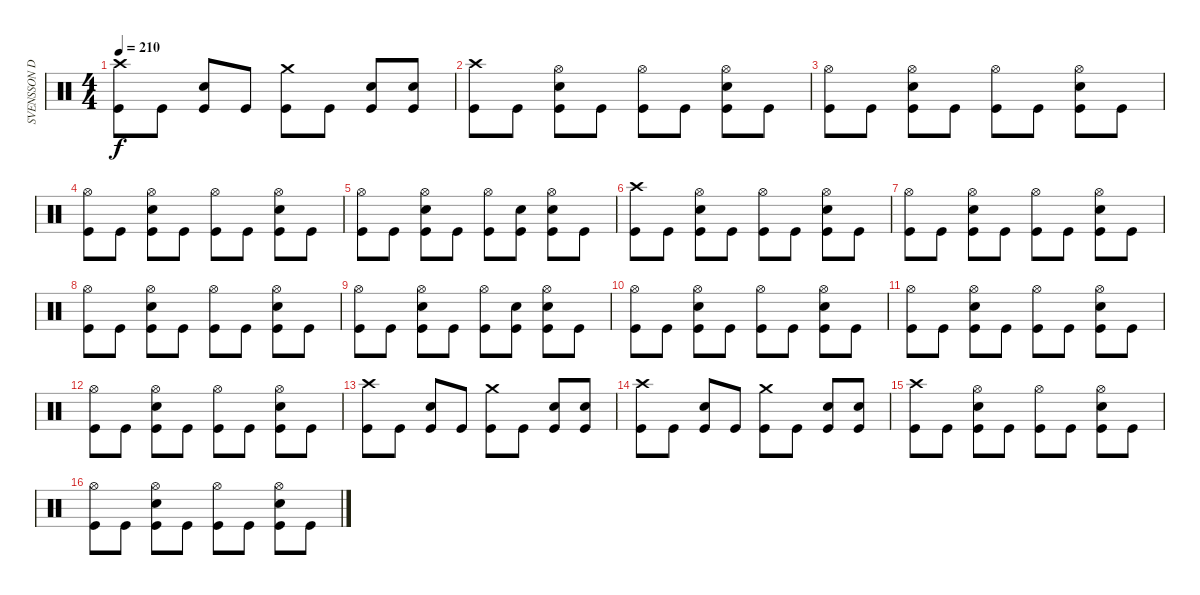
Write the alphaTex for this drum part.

\track ("SVENSSON DRUMS" "SVENSSON D") {instrument percussion}
\staff {score}
\articulation defaults
\ts (4 4)
\tempo 210
\clef neutral
\ks c
("Crash high (hit)" "Kick (hit)").8{dy f} "Kick (hit)".8 ("Electric Snare (hit)" "Kick (hit)").8 "Kick (hit)".8 ("Crash medium (hit)" "Kick (hit)").8 "Kick (hit)".8 ("Electric Snare (hit)" "Kick (hit)").8 ("Electric Snare (hit)" "Kick (hit)").8 |
("Crash high (hit)" "Kick (hit)").8 "Kick (hit)".8 ("Hi-Hat (open)" "Electric Snare (hit)" "Kick (hit)").8 "Kick (hit)".8 ("Hi-Hat (open)" "Kick (hit)").8 "Kick (hit)".8 ("Hi-Hat (open)" "Electric Snare (hit)" "Kick (hit)").8 "Kick (hit)".8 |
("Hi-Hat (open)" "Kick (hit)").8 "Kick (hit)".8 ("Hi-Hat (open)" "Electric Snare (hit)" "Kick (hit)").8 "Kick (hit)".8 ("Hi-Hat (open)" "Kick (hit)").8 "Kick (hit)".8 ("Hi-Hat (open)" "Electric Snare (hit)" "Kick (hit)").8 "Kick (hit)".8 |
("Hi-Hat (open)" "Kick (hit)").8 "Kick (hit)".8 ("Hi-Hat (open)" "Electric Snare (hit)" "Kick (hit)").8 "Kick (hit)".8 ("Hi-Hat (open)" "Kick (hit)").8 "Kick (hit)".8 ("Hi-Hat (open)" "Electric Snare (hit)" "Kick (hit)").8 "Kick (hit)".8 |
("Hi-Hat (open)" "Kick (hit)").8 "Kick (hit)".8 ("Hi-Hat (open)" "Electric Snare (hit)" "Kick (hit)").8 "Kick (hit)".8 ("Hi-Hat (open)" "Kick (hit)").8 ("Electric Snare (hit)" "Kick (hit)").8 ("Hi-Hat (open)" "Electric Snare (hit)" "Kick (hit)").8 "Kick (hit)".8 |
("Crash high (hit)" "Kick (hit)").8 "Kick (hit)".8 ("Hi-Hat (open)" "Electric Snare (hit)" "Kick (hit)").8 "Kick (hit)".8 ("Hi-Hat (open)" "Kick (hit)").8 "Kick (hit)".8 ("Hi-Hat (open)" "Electric Snare (hit)" "Kick (hit)").8 "Kick (hit)".8 |
("Hi-Hat (open)" "Kick (hit)").8 "Kick (hit)".8 ("Hi-Hat (open)" "Electric Snare (hit)" "Kick (hit)").8 "Kick (hit)".8 ("Hi-Hat (open)" "Kick (hit)").8 "Kick (hit)".8 ("Hi-Hat (open)" "Electric Snare (hit)" "Kick (hit)").8 "Kick (hit)".8 |
("Hi-Hat (open)" "Kick (hit)").8 "Kick (hit)".8 ("Hi-Hat (open)" "Electric Snare (hit)" "Kick (hit)").8 "Kick (hit)".8 ("Hi-Hat (open)" "Kick (hit)").8 "Kick (hit)".8 ("Hi-Hat (open)" "Electric Snare (hit)" "Kick (hit)").8 "Kick (hit)".8 |
("Hi-Hat (open)" "Kick (hit)").8 "Kick (hit)".8 ("Hi-Hat (open)" "Electric Snare (hit)" "Kick (hit)").8 "Kick (hit)".8 ("Hi-Hat (open)" "Kick (hit)").8 ("Electric Snare (hit)" "Kick (hit)").8 ("Hi-Hat (open)" "Electric Snare (hit)" "Kick (hit)").8 "Kick (hit)".8 |
("Hi-Hat (open)" "Kick (hit)").8 "Kick (hit)".8 ("Hi-Hat (open)" "Electric Snare (hit)" "Kick (hit)").8 "Kick (hit)".8 ("Hi-Hat (open)" "Kick (hit)").8 "Kick (hit)".8 ("Hi-Hat (open)" "Electric Snare (hit)" "Kick (hit)").8 "Kick (hit)".8 |
("Hi-Hat (open)" "Kick (hit)").8 "Kick (hit)".8 ("Hi-Hat (open)" "Electric Snare (hit)" "Kick (hit)").8 "Kick (hit)".8 ("Hi-Hat (open)" "Kick (hit)").8 "Kick (hit)".8 ("Hi-Hat (open)" "Electric Snare (hit)" "Kick (hit)").8 "Kick (hit)".8 |
("Hi-Hat (open)" "Kick (hit)").8 "Kick (hit)".8 ("Hi-Hat (open)" "Electric Snare (hit)" "Kick (hit)").8 "Kick (hit)".8 ("Hi-Hat (open)" "Kick (hit)").8 "Kick (hit)".8 ("Hi-Hat (open)" "Electric Snare (hit)" "Kick (hit)").8 "Kick (hit)".8 |
("Crash high (hit)" "Kick (hit)").8 "Kick (hit)".8 ("Electric Snare (hit)" "Kick (hit)").8 "Kick (hit)".8 ("Crash medium (hit)" "Kick (hit)").8 "Kick (hit)".8 ("Electric Snare (hit)" "Kick (hit)").8 ("Electric Snare (hit)" "Kick (hit)").8 |
("Crash high (hit)" "Kick (hit)").8 "Kick (hit)".8 ("Electric Snare (hit)" "Kick (hit)").8 "Kick (hit)".8 ("Crash medium (hit)" "Kick (hit)").8 "Kick (hit)".8 ("Electric Snare (hit)" "Kick (hit)").8 ("Electric Snare (hit)" "Kick (hit)").8 |
("Crash high (hit)" "Kick (hit)").8 "Kick (hit)".8 ("Hi-Hat (open)" "Electric Snare (hit)" "Kick (hit)").8 "Kick (hit)".8 ("Hi-Hat (open)" "Kick (hit)").8 "Kick (hit)".8 ("Hi-Hat (open)" "Electric Snare (hit)" "Kick (hit)").8 "Kick (hit)".8 |
("Hi-Hat (open)" "Kick (hit)").8 "Kick (hit)".8 ("Hi-Hat (open)" "Electric Snare (hit)" "Kick (hit)").8 "Kick (hit)".8 ("Hi-Hat (open)" "Kick (hit)").8 "Kick (hit)".8 ("Hi-Hat (open)" "Electric Snare (hit)" "Kick (hit)").8 "Kick (hit)".8
